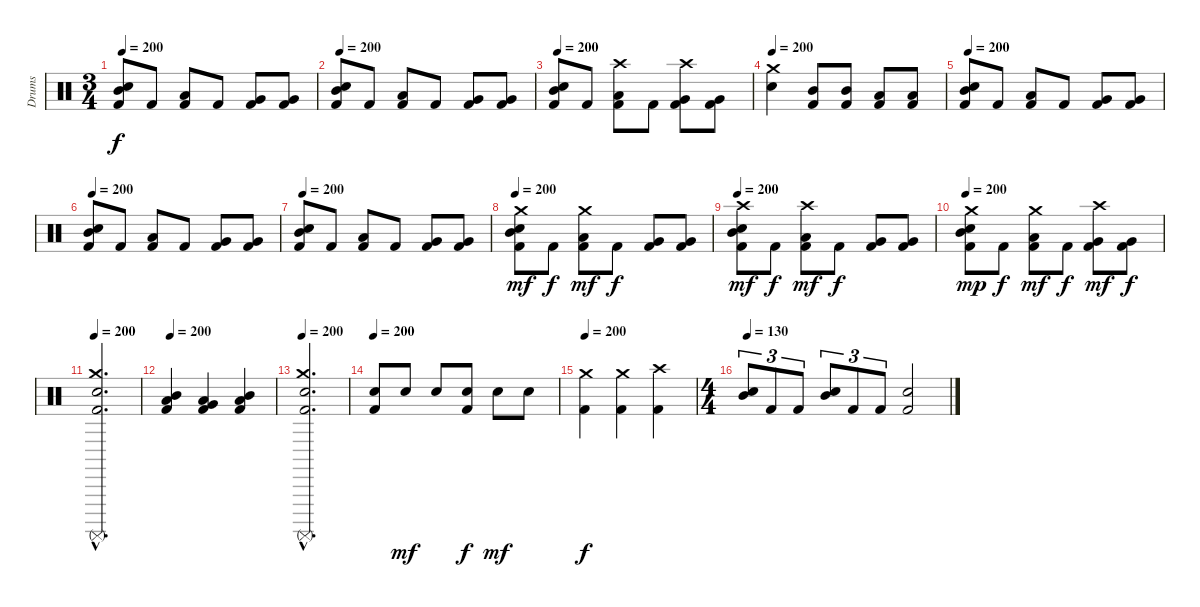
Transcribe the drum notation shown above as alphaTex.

\track ("Drums" "Drums") {instrument percussion}
\staff {score}
\articulation defaults
\ts (3 4)
\tempo 200
\clef neutral
\ks c
("Electric Snare (hit)" "Mid Tom (hit)" "Kick (hit) 2").8{dy f} "Kick (hit) 2".8 ("Low Tom (hit)" "Kick (hit) 2").8 "Kick (hit) 2".8 ("Very Low Tom (hit)" "Kick (hit) 2").8 ("Very Low Tom (hit)" "Kick (hit) 2").8 |
\tempo 200
("Electric Snare (hit)" "Mid Tom (hit)" "Kick (hit) 2").8 "Kick (hit) 2".8 ("Low Tom (hit)" "Kick (hit) 2").8 "Kick (hit) 2".8 ("Very Low Tom (hit)" "Kick (hit) 2").8 ("Very Low Tom (hit)" "Kick (hit) 2").8 |
\tempo 200
("Electric Snare (hit)" "Mid Tom (hit)" "Kick (hit) 2").8 "Kick (hit) 2".8 ("Crash high (hit)" "Low Tom (hit)" "Kick (hit) 2").8 "Kick (hit) 2".8 ("Crash high (hit)" "Very Low Tom (hit)" "Kick (hit) 2").8 ("Very Low Tom (hit)" "Kick (hit) 2").8 |
\tempo 200
("Crash medium (hit)" "Electric Snare (hit)").4 ("Mid Tom (hit)" "Kick (hit) 2").8 ("Mid Tom (hit)" "Kick (hit) 2").8 ("Low Tom (hit)" "Kick (hit) 2").8 ("Low Tom (hit)" "Kick (hit) 2").8 |
\tempo 200
("Electric Snare (hit)" "Mid Tom (hit)" "Kick (hit) 2").8 "Kick (hit) 2".8 ("Low Tom (hit)" "Kick (hit) 2").8 "Kick (hit) 2".8 ("Very Low Tom (hit)" "Kick (hit) 2").8 ("Very Low Tom (hit)" "Kick (hit) 2").8 |
\tempo 200
("Electric Snare (hit)" "Mid Tom (hit)" "Kick (hit) 2").8 "Kick (hit) 2".8 ("Low Tom (hit)" "Kick (hit) 2").8 "Kick (hit) 2".8 ("Very Low Tom (hit)" "Kick (hit) 2").8 ("Very Low Tom (hit)" "Kick (hit) 2").8 |
\tempo 200
("Electric Snare (hit)" "Mid Tom (hit)" "Kick (hit) 2").8 "Kick (hit) 2".8 ("Low Tom (hit)" "Kick (hit) 2").8 "Kick (hit) 2".8 ("Very Low Tom (hit)" "Kick (hit) 2").8 ("Very Low Tom (hit)" "Kick (hit) 2").8 |
\tempo 200
("Crash medium (hit)" "Electric Snare (hit)" "Mid Tom (hit)" "Kick (hit) 2").8{dy mf} "Kick (hit) 2".8{dy f} ("Crash medium (hit)" "Low Tom (hit)" "Kick (hit) 2").8{dy mf} "Kick (hit) 2".8{dy f} ("Very Low Tom (hit)" "Kick (hit) 2").8 ("Very Low Tom (hit)" "Kick (hit) 2").8 |
\tempo 200
("Crash high (hit)" "Electric Snare (hit)" "Mid Tom (hit)" "Kick (hit) 2").8{dy mf} "Kick (hit) 2".8{dy f} ("Crash high (hit)" "Low Tom (hit)" "Kick (hit) 2").8{dy mf} "Kick (hit) 2".8{dy f} ("Very Low Tom (hit)" "Kick (hit) 2").8 ("Very Low Tom (hit)" "Kick (hit) 2").8 |
\tempo 200
("Crash medium (hit)" "Electric Snare (hit)" "Mid Tom (hit)" "Kick (hit) 2").8{dy mp} "Kick (hit) 2".8{dy f} ("Crash medium (hit)" "Low Tom (hit)" "Kick (hit) 2").8{dy mf} "Kick (hit) 2".8{dy f} ("Crash high (hit)" "Very Low Tom (hit)" "Kick (hit) 2").8{dy mf} ("Very Low Tom (hit)" "Kick (hit) 2").8{dy f} |
\tempo 200
("Crash medium (hit)"{hac} "Electric Snare (hit)"{hac} "Surdo (mute)"{hac} "Kick (hit) 2"{hac}).2{d} |
\tempo 200
("Mid Tom (hit)" "Low Tom (hit)" "Kick (hit) 2").4 ("Low Tom (hit)" "Very Low Tom (hit)" "Kick (hit) 2").4 ("Mid Tom (hit)" "Low Tom (hit)" "Kick (hit) 2").4 |
\tempo 200
("Crash medium (hit)"{hac} "Electric Snare (hit)"{hac} "Surdo (mute)"{hac} "Kick (hit) 2"{hac}).2{d} |
\tempo 200
("Electric Snare (hit)" "Kick (hit) 2").8 "Electric Snare (hit)".8{dy mf} "Electric Snare (hit)".8 ("Electric Snare (hit)" "Kick (hit) 2").8{dy f} "Electric Snare (hit)".8{dy mf} "Electric Snare (hit)".8 |
\tempo 200
("Crash medium (hit)" "Kick (hit) 2").4{dy f} ("Crash medium (hit)" "Kick (hit) 2").4 ("Crash high (hit)" "Kick (hit) 2").4 |
\ts (4 4)
\tempo 130
("Electric Snare (hit)" "Mid Tom (hit)").8{tu (3 2)} "Kick (hit) 2".8{tu (3 2)} "Kick (hit) 2".8{tu (3 2)} ("Electric Snare (hit)" "Mid Tom (hit)").8{tu (3 2)} "Kick (hit) 2".8{tu (3 2)} "Kick (hit) 2".8{tu (3 2)} ("Electric Snare (hit)" "Kick (hit) 2").2
